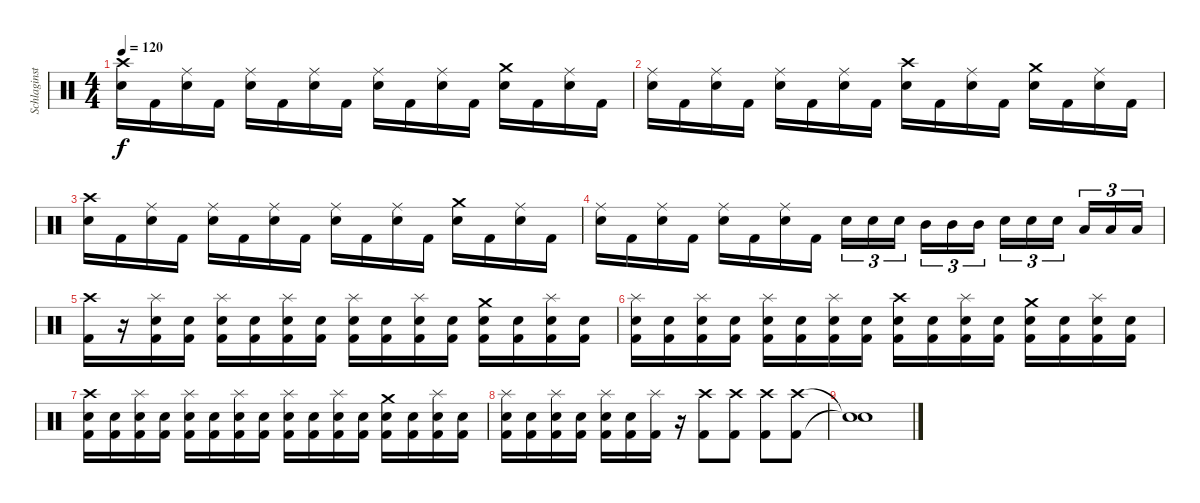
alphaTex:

\track ("Schlaginstrumente - Auswahl" "Schlaginst") {instrument percussion}
\staff {score}
\articulation defaults
\ts (4 4)
\tempo 120
\clef neutral
\ks c
("Crash high (hit)" "Electric Snare (hit)").16{dy f} "Kick (hit) 2".16 ("Ride (middle)" "Electric Snare (hit)").16 "Kick (hit) 2".16 ("Ride (middle)" "Electric Snare (hit)").16 "Kick (hit) 2".16 ("Ride (middle)" "Electric Snare (hit)").16 "Kick (hit) 2".16 ("Ride (middle)" "Electric Snare (hit)").16 "Kick (hit) 2".16 ("Ride (middle)" "Electric Snare (hit)").16 "Kick (hit) 2".16 ("Crash medium (hit)" "Electric Snare (hit)").16 "Kick (hit) 2".16 ("Ride (middle)" "Electric Snare (hit)").16 "Kick (hit) 2".16 |
("Ride (middle)" "Electric Snare (hit)").16 "Kick (hit) 2".16 ("Ride (middle)" "Electric Snare (hit)").16 "Kick (hit) 2".16 ("Ride (middle)" "Electric Snare (hit)").16 "Kick (hit) 2".16 ("Ride (middle)" "Electric Snare (hit)").16 "Kick (hit) 2".16 ("Crash high (hit)" "Electric Snare (hit)").16 "Kick (hit) 2".16 ("Ride (middle)" "Electric Snare (hit)").16 "Kick (hit) 2".16 ("Crash medium (hit)" "Electric Snare (hit)").16 "Kick (hit) 2".16 ("Ride (middle)" "Electric Snare (hit)").16 "Kick (hit) 2".16 |
("Crash high (hit)" "Electric Snare (hit)").16 "Kick (hit) 2".16 ("Ride (middle)" "Electric Snare (hit)").16 "Kick (hit) 2".16 ("Ride (middle)" "Electric Snare (hit)").16 "Kick (hit) 2".16 ("Ride (middle)" "Electric Snare (hit)").16 "Kick (hit) 2".16 ("Ride (middle)" "Electric Snare (hit)").16 "Kick (hit) 2".16 ("Ride (middle)" "Electric Snare (hit)").16 "Kick (hit) 2".16 ("Crash medium (hit)" "Electric Snare (hit)").16 "Kick (hit) 2".16 ("Ride (middle)" "Electric Snare (hit)").16 "Kick (hit) 2".16 |
("Ride (middle)" "Electric Snare (hit)").16 "Kick (hit) 2".16 ("Ride (middle)" "Electric Snare (hit)").16 "Kick (hit) 2".16 ("Ride (middle)" "Electric Snare (hit)").16 "Kick (hit) 2".16 ("Ride (middle)" "Electric Snare (hit)").16 "Kick (hit) 2".16 "Electric Snare (hit)".16{tu (3 2)} "Electric Snare (hit)".16{tu (3 2)} "Electric Snare (hit)".16{tu (3 2) beam splitsecondary} "Mid Tom (hit)".16{tu (3 2)} "Mid Tom (hit)".16{tu (3 2)} "Mid Tom (hit)".16{tu (3 2)} "Electric Snare (hit)".16{tu (3 2)} "Electric Snare (hit)".16{tu (3 2)} "Electric Snare (hit)".16{tu (3 2) beam splitsecondary} "Low Tom (hit)".16{tu (3 2)} "Low Tom (hit)".16{tu (3 2)} "Low Tom (hit)".16{tu (3 2)} |
("Crash high (hit)" "Kick (hit) 2").16 r.16 ("Splash (hit)" "Electric Snare (hit)" "Kick (hit) 2").16 ("Electric Snare (hit)" "Kick (hit) 2").16 ("Splash (hit)" "Electric Snare (hit)" "Kick (hit) 2").16 ("Electric Snare (hit)" "Kick (hit) 2").16 ("Splash (hit)" "Electric Snare (hit)" "Kick (hit) 2").16 ("Electric Snare (hit)" "Kick (hit) 2").16 ("Splash (hit)" "Electric Snare (hit)" "Kick (hit) 2").16 ("Electric Snare (hit)" "Kick (hit) 2").16 ("Splash (hit)" "Electric Snare (hit)" "Kick (hit) 2").16 ("Electric Snare (hit)" "Kick (hit) 2").16 ("Crash medium (hit)" "Electric Snare (hit)" "Kick (hit) 2").16 ("Electric Snare (hit)" "Kick (hit) 2").16 ("Splash (hit)" "Electric Snare (hit)" "Kick (hit) 2").16 ("Electric Snare (hit)" "Kick (hit) 2").16 |
("Splash (hit)" "Electric Snare (hit)" "Kick (hit) 2").16 ("Electric Snare (hit)" "Kick (hit) 2").16 ("Splash (hit)" "Electric Snare (hit)" "Kick (hit) 2").16 ("Electric Snare (hit)" "Kick (hit) 2").16 ("Splash (hit)" "Electric Snare (hit)" "Kick (hit) 2").16 ("Electric Snare (hit)" "Kick (hit) 2").16 ("Splash (hit)" "Electric Snare (hit)" "Kick (hit) 2").16 ("Electric Snare (hit)" "Kick (hit) 2").16 ("Crash high (hit)" "Electric Snare (hit)" "Kick (hit) 2").16 ("Electric Snare (hit)" "Kick (hit) 2").16 ("Splash (hit)" "Electric Snare (hit)" "Kick (hit) 2").16 ("Electric Snare (hit)" "Kick (hit) 2").16 ("Crash medium (hit)" "Electric Snare (hit)" "Kick (hit) 2").16 ("Electric Snare (hit)" "Kick (hit) 2").16 ("Splash (hit)" "Electric Snare (hit)" "Kick (hit) 2").16 ("Electric Snare (hit)" "Kick (hit) 2").16 |
("Crash high (hit)" "Electric Snare (hit)" "Kick (hit) 2").16 ("Electric Snare (hit)" "Kick (hit) 2").16 ("Splash (hit)" "Electric Snare (hit)" "Kick (hit) 2").16 ("Electric Snare (hit)" "Kick (hit) 2").16 ("Splash (hit)" "Electric Snare (hit)" "Kick (hit) 2").16 ("Electric Snare (hit)" "Kick (hit) 2").16 ("Splash (hit)" "Electric Snare (hit)" "Kick (hit) 2").16 ("Electric Snare (hit)" "Kick (hit) 2").16 ("Splash (hit)" "Electric Snare (hit)" "Kick (hit) 2").16 ("Electric Snare (hit)" "Kick (hit) 2").16 ("Splash (hit)" "Electric Snare (hit)" "Kick (hit) 2").16 ("Electric Snare (hit)" "Kick (hit) 2").16 ("Crash medium (hit)" "Electric Snare (hit)" "Kick (hit) 2").16 ("Electric Snare (hit)" "Kick (hit) 2").16 ("Splash (hit)" "Electric Snare (hit)" "Kick (hit) 2").16 ("Electric Snare (hit)" "Kick (hit) 2").16 |
("Splash (hit)" "Electric Snare (hit)" "Kick (hit) 2").16 ("Electric Snare (hit)" "Kick (hit) 2").16 ("Splash (hit)" "Electric Snare (hit)" "Kick (hit) 2").16 ("Electric Snare (hit)" "Kick (hit) 2").16 ("Splash (hit)" "Electric Snare (hit)" "Kick (hit) 2").16 ("Electric Snare (hit)" "Kick (hit) 2").16 ("Splash (hit)" "Kick (hit) 2").16 r.16 ("Crash high (hit)" "Kick (hit) 2").8 ("Crash high (hit)" "Kick (hit) 2").8 ("Crash high (hit)" "Kick (hit) 2").8 ("Crash high (hit)" "Kick (hit) 2").8 |
("Snare (hit)"{t} "Snare (hit)"{t}).1
